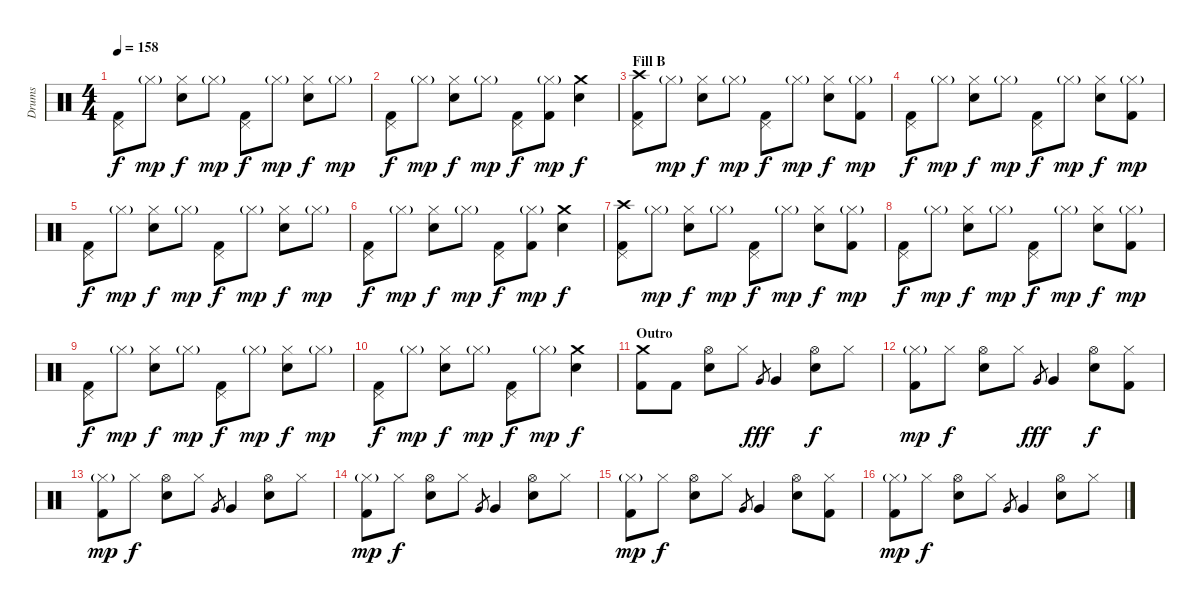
\track ("Drums" "Drums") {instrument percussion}
\staff {score}
\articulation defaults
\ts (4 4)
\tempo 158
\clef neutral
\ks c
("Pedal Hi-Hat (hit)" "Kick (hit) 2").8{dy f} "Hi-Hat (closed)"{g}.8{dy mp} ("Hi-Hat (closed)" "Snare (hit) 2").8{dy f} "Hi-Hat (closed)"{g}.8{dy mp} ("Pedal Hi-Hat (hit)" "Kick (hit) 2").8{dy f} "Hi-Hat (closed)"{g}.8{dy mp} ("Hi-Hat (closed)" "Snare (hit) 2").8{dy f} "Hi-Hat (closed)"{g}.8{dy mp} |
("Pedal Hi-Hat (hit)" "Kick (hit) 2").8{dy f} "Hi-Hat (closed)"{g}.8{dy mp} ("Hi-Hat (closed)" "Snare (hit) 2").8{dy f} "Hi-Hat (closed)"{g}.8{dy mp} ("Pedal Hi-Hat (hit)" "Kick (hit) 2").8{dy f} ("Hi-Hat (closed)"{g} "Kick (hit) 2").8{dy mp} ("Crash medium (hit)" "Snare (hit) 2").4{dy f} |
\section ("" "Fill B")
("Crash high (hit)" "Pedal Hi-Hat (hit)" "Kick (hit) 2").8 "Hi-Hat (closed)"{g}.8{dy mp} ("Hi-Hat (closed)" "Snare (hit) 2").8{dy f} "Hi-Hat (closed)"{g}.8{dy mp} ("Pedal Hi-Hat (hit)" "Kick (hit) 2").8{dy f} "Hi-Hat (closed)"{g}.8{dy mp} ("Hi-Hat (closed)" "Snare (hit) 2").8{dy f} ("Hi-Hat (closed)"{g} "Kick (hit) 2").8{dy mp} |
("Pedal Hi-Hat (hit)" "Kick (hit) 2").8{dy f} "Hi-Hat (closed)"{g}.8{dy mp} ("Hi-Hat (closed)" "Snare (hit) 2").8{dy f} "Hi-Hat (closed)"{g}.8{dy mp} ("Pedal Hi-Hat (hit)" "Kick (hit) 2").8{dy f} "Hi-Hat (closed)"{g}.8{dy mp} ("Hi-Hat (closed)" "Snare (hit) 2").8{dy f} ("Hi-Hat (closed)"{g} "Kick (hit) 2").8{dy mp} |
("Pedal Hi-Hat (hit)" "Kick (hit) 2").8{dy f} "Hi-Hat (closed)"{g}.8{dy mp} ("Hi-Hat (closed)" "Snare (hit) 2").8{dy f} "Hi-Hat (closed)"{g}.8{dy mp} ("Pedal Hi-Hat (hit)" "Kick (hit) 2").8{dy f} "Hi-Hat (closed)"{g}.8{dy mp} ("Hi-Hat (closed)" "Snare (hit) 2").8{dy f} "Hi-Hat (closed)"{g}.8{dy mp} |
("Pedal Hi-Hat (hit)" "Kick (hit) 2").8{dy f} "Hi-Hat (closed)"{g}.8{dy mp} ("Hi-Hat (closed)" "Snare (hit) 2").8{dy f} "Hi-Hat (closed)"{g}.8{dy mp} ("Pedal Hi-Hat (hit)" "Kick (hit) 2").8{dy f} ("Hi-Hat (closed)"{g} "Kick (hit) 2").8{dy mp} ("Crash medium (hit)" "Snare (hit) 2").4{dy f} |
("Crash high (hit)" "Pedal Hi-Hat (hit)" "Kick (hit) 2").8 "Hi-Hat (closed)"{g}.8{dy mp} ("Hi-Hat (closed)" "Snare (hit) 2").8{dy f} "Hi-Hat (closed)"{g}.8{dy mp} ("Pedal Hi-Hat (hit)" "Kick (hit) 2").8{dy f} "Hi-Hat (closed)"{g}.8{dy mp} ("Hi-Hat (closed)" "Snare (hit) 2").8{dy f} ("Hi-Hat (closed)"{g} "Kick (hit) 2").8{dy mp} |
("Pedal Hi-Hat (hit)" "Kick (hit) 2").8{dy f} "Hi-Hat (closed)"{g}.8{dy mp} ("Hi-Hat (closed)" "Snare (hit) 2").8{dy f} "Hi-Hat (closed)"{g}.8{dy mp} ("Pedal Hi-Hat (hit)" "Kick (hit) 2").8{dy f} "Hi-Hat (closed)"{g}.8{dy mp} ("Hi-Hat (closed)" "Snare (hit) 2").8{dy f} ("Hi-Hat (closed)"{g} "Kick (hit) 2").8{dy mp} |
("Pedal Hi-Hat (hit)" "Kick (hit) 2").8{dy f} "Hi-Hat (closed)"{g}.8{dy mp} ("Hi-Hat (closed)" "Snare (hit) 2").8{dy f} "Hi-Hat (closed)"{g}.8{dy mp} ("Pedal Hi-Hat (hit)" "Kick (hit) 2").8{dy f} "Hi-Hat (closed)"{g}.8{dy mp} ("Hi-Hat (closed)" "Snare (hit) 2").8{dy f} "Hi-Hat (closed)"{g}.8{dy mp} |
("Pedal Hi-Hat (hit)" "Kick (hit) 2").8{dy f} "Hi-Hat (closed)"{g}.8{dy mp} ("Hi-Hat (closed)" "Snare (hit) 2").8{dy f} "Hi-Hat (closed)"{g}.8{dy mp} ("Pedal Hi-Hat (hit)" "Kick (hit) 2").8{dy f} "Hi-Hat (closed)"{g}.8{dy mp} ("Crash medium (hit)" "Snare (hit) 2").4{dy f} |
\section ("" "Outro")
("Crash medium (hit)" "Kick (hit) 2").8 "Kick (hit) 2".8 ("Hi-Hat (open)" "Snare (hit) 2").8 "Hi-Hat (closed)".8 "Very Low Tom (hit)".8{gr dy fff} "Very Low Tom (hit)".4 ("Hi-Hat (open)" "Snare (hit) 2").8{dy f} "Hi-Hat (closed)".8 |
("Hi-Hat (closed)"{g} "Kick (hit) 2").8{dy mp} "Hi-Hat (closed)".8{dy f} ("Hi-Hat (open)" "Snare (hit) 2").8 "Hi-Hat (closed)".8 "Very Low Tom (hit)".8{gr dy fff} "Very Low Tom (hit)".4 ("Hi-Hat (open)" "Snare (hit) 2").8{dy f} ("Hi-Hat (closed)" "Kick (hit) 2").8 |
("Hi-Hat (closed)"{g} "Kick (hit) 2").8{dy mp} "Hi-Hat (closed)".8{dy f} ("Hi-Hat (open)" "Snare (hit) 2").8 "Hi-Hat (closed)".8 "Very Low Tom (hit)".8{gr} "Very Low Tom (hit)".4 ("Hi-Hat (open)" "Snare (hit) 2").8 "Hi-Hat (closed)".8 |
("Hi-Hat (closed)"{g} "Kick (hit) 2").8{dy mp} "Hi-Hat (closed)".8{dy f} ("Hi-Hat (open)" "Snare (hit) 2").8 "Hi-Hat (closed)".8 "Very Low Tom (hit)".8{gr} "Very Low Tom (hit)".4 ("Hi-Hat (open)" "Snare (hit) 2").8 "Hi-Hat (closed)".8 |
("Hi-Hat (closed)"{g} "Kick (hit) 2").8{dy mp} "Hi-Hat (closed)".8{dy f} ("Hi-Hat (open)" "Snare (hit) 2").8 "Hi-Hat (closed)".8 "Very Low Tom (hit)".8{gr} "Very Low Tom (hit)".4 ("Hi-Hat (open)" "Snare (hit) 2").8 ("Hi-Hat (closed)" "Kick (hit) 2").8 |
("Hi-Hat (closed)"{g} "Kick (hit) 2").8{dy mp} "Hi-Hat (closed)".8{dy f} ("Hi-Hat (open)" "Snare (hit) 2").8 "Hi-Hat (closed)".8 "Very Low Tom (hit)".8{gr} "Very Low Tom (hit)".4 ("Hi-Hat (open)" "Snare (hit) 2").8 "Hi-Hat (closed)".8
